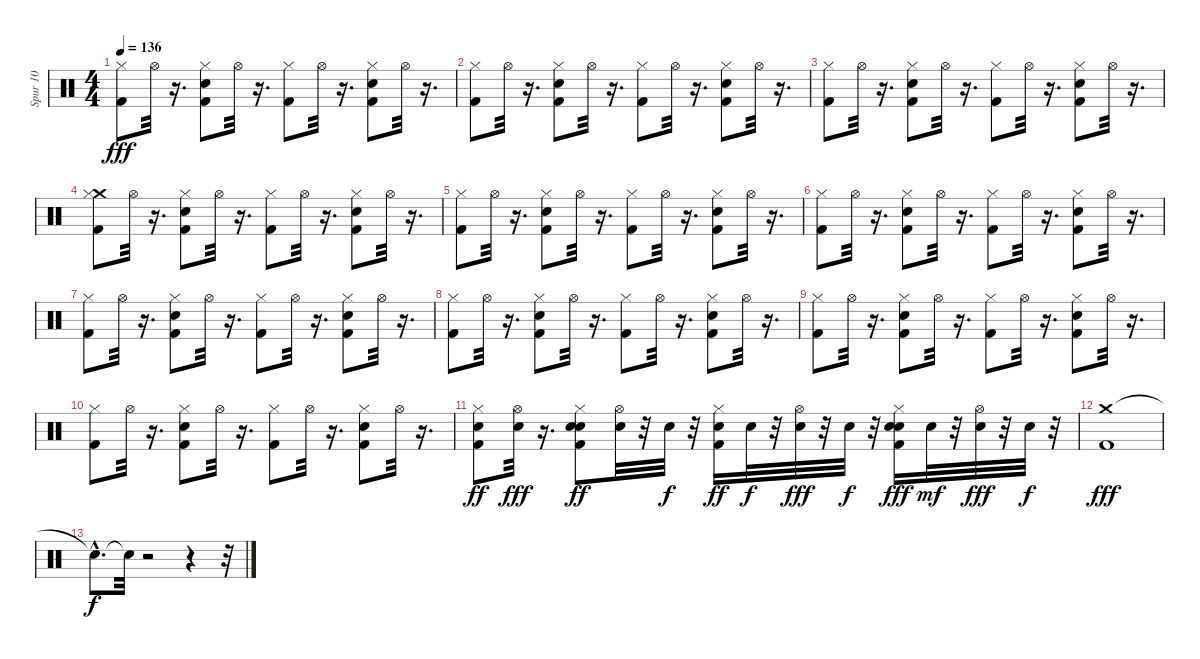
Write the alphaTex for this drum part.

\track ("Spur 10" "Spur 10") {instrument percussion}
\staff {score}
\articulation defaults
\ts (4 4)
\tempo 136
\clef neutral
\ks c
("Kick (hit) 2" "Hi-Hat (closed)").8{dy fff} "Hi-Hat (open)".32 r.16{d} ("Kick (hit) 2" "Snare (hit) 2" "Hi-Hat (closed)").8 "Hi-Hat (open)".32 r.16{d} ("Hi-Hat (closed)" "Kick (hit) 2").8 "Hi-Hat (open)".32 r.16{d} ("Kick (hit) 2" "Hi-Hat (closed)" "Snare (hit) 2").8 "Hi-Hat (open)".32 r.16{d} |
("Hi-Hat (closed)" "Kick (hit) 2").8 "Hi-Hat (open)".32 r.16{d} ("Hi-Hat (closed)" "Snare (hit) 2" "Kick (hit) 2").8 "Hi-Hat (open)".32 r.16{d} ("Hi-Hat (closed)" "Kick (hit) 2").8 "Hi-Hat (open)".32 r.16{d} ("Kick (hit) 2" "Snare (hit) 2" "Hi-Hat (closed)").8 "Hi-Hat (open)".32 r.16{d} |
("Kick (hit) 2" "Hi-Hat (closed)").8 "Hi-Hat (open)".32 r.16{d} ("Hi-Hat (closed)" "Snare (hit) 2" "Kick (hit) 2").8 "Hi-Hat (open)".32 r.16{d} ("Kick (hit) 2" "Hi-Hat (closed)").8 "Hi-Hat (open)".32 r.16{d} ("Hi-Hat (closed)" "Kick (hit) 2" "Snare (hit) 2").8 "Hi-Hat (open)".32 r.16{d} |
("Crash medium (hit)" "Hi-Hat (closed)" "Kick (hit) 2").8 "Hi-Hat (open)".32 r.16{d} ("Hi-Hat (closed)" "Kick (hit) 2" "Snare (hit) 2").8 "Hi-Hat (open)".32 r.16{d} ("Kick (hit) 2" "Hi-Hat (closed)").8 "Hi-Hat (open)".32 r.16{d} ("Snare (hit) 2" "Hi-Hat (closed)" "Kick (hit) 2").8 "Hi-Hat (open)".32 r.16{d} |
("Kick (hit) 2" "Hi-Hat (closed)").8 "Hi-Hat (open)".32 r.16{d} ("Kick (hit) 2" "Snare (hit) 2" "Hi-Hat (closed)").8 "Hi-Hat (open)".32 r.16{d} ("Hi-Hat (closed)" "Kick (hit) 2").8 "Hi-Hat (open)".32 r.16{d} ("Snare (hit) 2" "Hi-Hat (closed)" "Kick (hit) 2").8 "Hi-Hat (open)".32 r.16{d} |
("Hi-Hat (closed)" "Kick (hit) 2").8 "Hi-Hat (open)".32 r.16{d} ("Snare (hit) 2" "Hi-Hat (closed)" "Kick (hit) 2").8 "Hi-Hat (open)".32 r.16{d} ("Hi-Hat (closed)" "Kick (hit) 2").8 "Hi-Hat (open)".32 r.16{d} ("Snare (hit) 2" "Hi-Hat (closed)" "Kick (hit) 2").8 "Hi-Hat (open)".32 r.16{d} |
("Kick (hit) 2" "Hi-Hat (closed)").8 "Hi-Hat (open)".32 r.16{d} ("Snare (hit) 2" "Hi-Hat (closed)" "Kick (hit) 2").8 "Hi-Hat (open)".32 r.16{d} ("Kick (hit) 2" "Hi-Hat (closed)").8 "Hi-Hat (open)".32 r.16{d} ("Snare (hit) 2" "Kick (hit) 2" "Hi-Hat (closed)").8 "Hi-Hat (open)".32 r.16{d} |
("Hi-Hat (closed)" "Kick (hit) 2").8 "Hi-Hat (open)".32 r.16{d} ("Kick (hit) 2" "Snare (hit) 2" "Hi-Hat (closed)").8 "Hi-Hat (open)".32 r.16{d} ("Hi-Hat (closed)" "Kick (hit) 2").8 "Hi-Hat (open)".32 r.16{d} ("Kick (hit) 2" "Snare (hit) 2" "Hi-Hat (closed)").8 "Hi-Hat (open)".32 r.16{d} |
("Kick (hit) 2" "Hi-Hat (closed)").8 "Hi-Hat (open)".32 r.16{d} ("Hi-Hat (closed)" "Snare (hit) 2" "Kick (hit) 2").8 "Hi-Hat (open)".32 r.16{d} ("Kick (hit) 2" "Hi-Hat (closed)").8 "Hi-Hat (open)".32 r.16{d} ("Kick (hit) 2" "Snare (hit) 2" "Hi-Hat (closed)").8 "Hi-Hat (open)".32 r.16{d} |
("Kick (hit) 2" "Hi-Hat (closed)").8 "Hi-Hat (open)".32 r.16{d} ("Hi-Hat (closed)" "Kick (hit) 2" "Snare (hit) 2").8 "Hi-Hat (open)".32 r.16{d} ("Hi-Hat (closed)" "Kick (hit) 2").8 "Hi-Hat (open)".32 r.16{d} ("Hi-Hat (closed)" "Kick (hit) 2" "Snare (hit) 2").8 "Hi-Hat (open)".32 r.16{d} |
("Hi-Hat (closed)" "Kick (hit) 2" "Snare (hit) 2").8{dy ff} ("Snare (hit) 2" "Hi-Hat (open)").32{dy fff} r.16{d} ("Hi-Hat (closed)" "Snare (hit) 2" "Kick (hit) 2" "Snare (hit) 2").8{dy ff} ("Hi-Hat (open)" "Snare (hit) 2").32 r.32 "Snare (hit) 2".32{dy f} r.32 ("Hi-Hat (closed)" "Kick (hit) 2" "Snare (hit) 2").16{dy ff} "Snare (hit) 2".32{dy f} r.32 ("Hi-Hat (open)" "Snare (hit) 2").32{dy fff} r.32 "Snare (hit) 2".32{dy f} r.32 ("Snare (hit) 2" "Kick (hit) 2" "Hi-Hat (closed)" "Snare (hit) 2").16{dy fff} "Snare (hit) 2".32{dy mf} r.32 ("Snare (hit) 2" "Hi-Hat (open)").32{dy fff} r.32 "Snare (hit) 2".32{dy f} r.32 |
("Crash medium (hit)" "Kick (hit) 2").1{dy fff} |
"Snare (hit)"{hac t}.8{d dy f} "Snare (hit)"{t}.32 r.2 r.4 r.32
